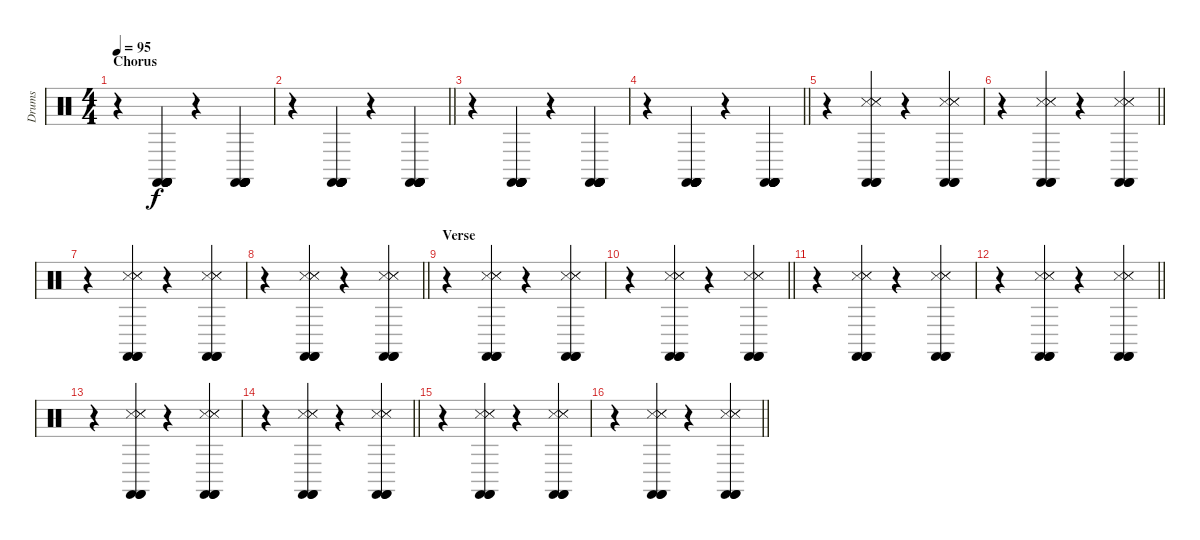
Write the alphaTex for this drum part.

\track ("Drums" "Drums") {instrument percussion}
\staff {score}
\articulation defaults
\ts (4 4)
\section ("" "Chorus")
\tempo 95
\clef neutral
\ks c
r.4{dy f} ("Castanets (hit)" "Castanets (hit)" "Castanets (hit)" "Castanets (hit)" "Castanets (hit)" "Castanets (hit)").4 r.4 ("Castanets (hit)" "Castanets (hit)" "Castanets (hit)" "Castanets (hit)" "Castanets (hit)" "Castanets (hit)").4 |
\barLineRight lightlight
r.4 ("Castanets (hit)" "Castanets (hit)" "Castanets (hit)" "Castanets (hit)" "Castanets (hit)" "Castanets (hit)").4 r.4 ("Castanets (hit)" "Castanets (hit)" "Castanets (hit)" "Castanets (hit)" "Castanets (hit)" "Castanets (hit)").4 |
r.4 ("Castanets (hit)" "Castanets (hit)" "Castanets (hit)" "Castanets (hit)" "Castanets (hit)" "Castanets (hit)").4 r.4 ("Castanets (hit)" "Castanets (hit)" "Castanets (hit)" "Castanets (hit)" "Castanets (hit)" "Castanets (hit)").4 |
\barLineRight lightlight
r.4 ("Castanets (hit)" "Castanets (hit)" "Castanets (hit)" "Castanets (hit)" "Castanets (hit)" "Castanets (hit)").4 r.4 ("Castanets (hit)" "Castanets (hit)" "Castanets (hit)" "Castanets (hit)" "Castanets (hit)" "Castanets (hit)").4 |
r.4 ("Castanets (hit)" "Snare (side stick) 3" "Castanets (hit)" "Snare (side stick) 3" "Snare (side stick) 3" "Castanets (hit)").4 r.4 ("Castanets (hit)" "Snare (side stick) 3" "Castanets (hit)" "Snare (side stick) 3" "Snare (side stick) 3" "Castanets (hit)").4 |
\barLineRight lightlight
r.4 ("Castanets (hit)" "Snare (side stick) 3" "Castanets (hit)" "Snare (side stick) 3" "Snare (side stick) 3" "Castanets (hit)").4 r.4 ("Castanets (hit)" "Snare (side stick) 3" "Castanets (hit)" "Snare (side stick) 3" "Snare (side stick) 3" "Castanets (hit)").4 |
r.4 ("Castanets (hit)" "Snare (side stick) 3" "Castanets (hit)" "Snare (side stick) 3" "Snare (side stick) 3" "Castanets (hit)").4 r.4 ("Castanets (hit)" "Snare (side stick) 3" "Castanets (hit)" "Snare (side stick) 3" "Snare (side stick) 3" "Castanets (hit)").4 |
\barLineRight lightlight
r.4 ("Castanets (hit)" "Snare (side stick) 3" "Castanets (hit)" "Snare (side stick) 3" "Snare (side stick) 3" "Castanets (hit)").4 r.4 ("Castanets (hit)" "Snare (side stick) 3" "Castanets (hit)" "Snare (side stick) 3" "Snare (side stick) 3" "Castanets (hit)").4 |
\section ("" "Verse")
r.4 ("Castanets (hit)" "Snare (side stick) 3" "Castanets (hit)" "Snare (side stick) 3" "Snare (side stick) 3" "Castanets (hit)").4 r.4 ("Castanets (hit)" "Snare (side stick) 3" "Castanets (hit)" "Snare (side stick) 3" "Snare (side stick) 3" "Castanets (hit)").4 |
\barLineRight lightlight
r.4 ("Castanets (hit)" "Snare (side stick) 3" "Castanets (hit)" "Snare (side stick) 3" "Snare (side stick) 3" "Castanets (hit)").4 r.4 ("Castanets (hit)" "Snare (side stick) 3" "Castanets (hit)" "Snare (side stick) 3" "Snare (side stick) 3" "Castanets (hit)").4 |
r.4 ("Castanets (hit)" "Snare (side stick) 3" "Castanets (hit)" "Snare (side stick) 3" "Snare (side stick) 3" "Castanets (hit)").4 r.4 ("Castanets (hit)" "Snare (side stick) 3" "Castanets (hit)" "Snare (side stick) 3" "Snare (side stick) 3" "Castanets (hit)").4 |
\barLineRight lightlight
r.4 ("Castanets (hit)" "Snare (side stick) 3" "Castanets (hit)" "Snare (side stick) 3" "Snare (side stick) 3" "Castanets (hit)").4 r.4 ("Castanets (hit)" "Snare (side stick) 3" "Castanets (hit)" "Snare (side stick) 3" "Snare (side stick) 3" "Castanets (hit)").4 |
r.4 ("Castanets (hit)" "Snare (side stick) 3" "Castanets (hit)" "Snare (side stick) 3" "Snare (side stick) 3" "Castanets (hit)").4 r.4 ("Castanets (hit)" "Snare (side stick) 3" "Castanets (hit)" "Snare (side stick) 3" "Snare (side stick) 3" "Castanets (hit)").4 |
\barLineRight lightlight
r.4 ("Castanets (hit)" "Snare (side stick) 3" "Castanets (hit)" "Snare (side stick) 3" "Snare (side stick) 3" "Castanets (hit)").4 r.4 ("Castanets (hit)" "Snare (side stick) 3" "Castanets (hit)" "Snare (side stick) 3" "Snare (side stick) 3" "Castanets (hit)").4 |
r.4 ("Castanets (hit)" "Snare (side stick) 3" "Castanets (hit)" "Snare (side stick) 3" "Snare (side stick) 3" "Castanets (hit)").4 r.4 ("Castanets (hit)" "Snare (side stick) 3" "Castanets (hit)" "Snare (side stick) 3" "Snare (side stick) 3" "Castanets (hit)").4 |
\barLineRight lightlight
r.4 ("Castanets (hit)" "Snare (side stick) 3" "Castanets (hit)" "Snare (side stick) 3" "Snare (side stick) 3" "Castanets (hit)").4 r.4 ("Castanets (hit)" "Snare (side stick) 3" "Castanets (hit)" "Snare (side stick) 3" "Snare (side stick) 3" "Castanets (hit)").4
